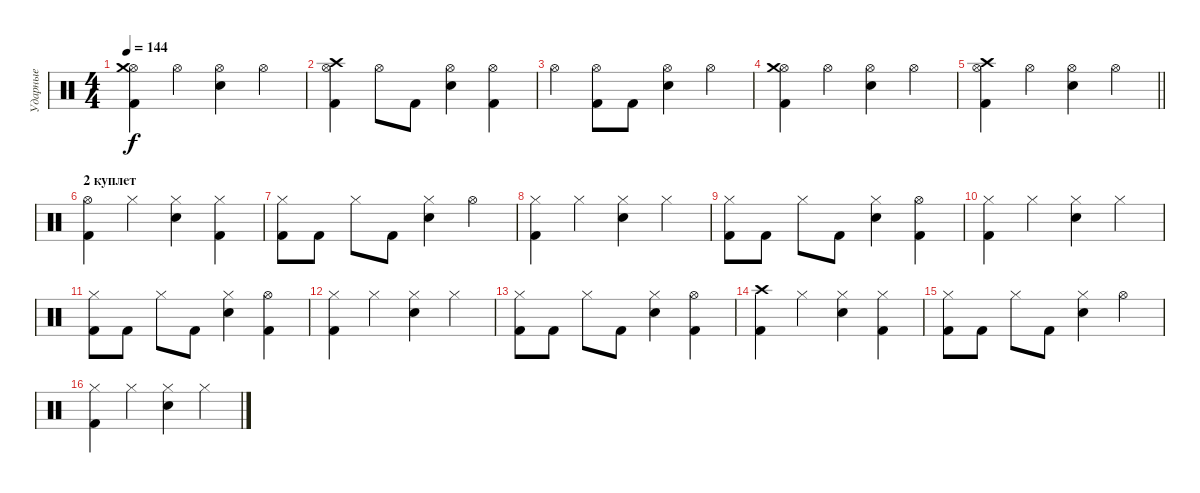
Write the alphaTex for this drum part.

\track ("Ударные" "Ударные") {instrument percussion}
\staff {score}
\articulation defaults
\ts (4 4)
\tempo 144
\clef neutral
\ks c
("Kick (hit) 2" "Hi-Hat (open)" "Crash medium (hit)").4{dy f} "Hi-Hat (open)".4 ("Snare (hit) 2" "Hi-Hat (open)").4 "Hi-Hat (open)".4 |
("Kick (hit) 2" "Hi-Hat (open)" "Crash high (hit)").4 "Hi-Hat (open)".8 "Kick (hit) 2".8 ("Snare (hit) 2" "Hi-Hat (open)").4 ("Kick (hit) 2" "Hi-Hat (open)").4 |
"Hi-Hat (open)".4 ("Kick (hit) 2" "Hi-Hat (open)").8 "Kick (hit) 2".8 ("Snare (hit) 2" "Hi-Hat (open)").4 "Hi-Hat (open)".4 |
("Kick (hit) 2" "Hi-Hat (open)" "Crash medium (hit)").4 "Hi-Hat (open)".4 ("Snare (hit) 2" "Hi-Hat (open)").4 "Hi-Hat (open)".4 |
\barLineRight lightlight
("Kick (hit) 2" "Hi-Hat (open)" "Crash high (hit)").4 "Hi-Hat (open)".4 ("Snare (hit) 2" "Hi-Hat (open)").4 "Hi-Hat (open)".4 |
\section ("" "2 куплет")
("Kick (hit) 2" "Hi-Hat (open)").4 "Hi-Hat (closed)".4 ("Snare (hit) 2" "Hi-Hat (closed)").4 ("Kick (hit) 2" "Hi-Hat (closed)").4 |
("Kick (hit) 2" "Hi-Hat (closed)").8 "Kick (hit) 2".8 "Hi-Hat (closed)".8 "Kick (hit) 2".8 ("Snare (hit) 2" "Hi-Hat (closed)").4 "Hi-Hat (open)".4 |
("Kick (hit) 2" "Hi-Hat (closed)").4 "Hi-Hat (closed)".4 ("Snare (hit) 2" "Hi-Hat (closed)").4 "Hi-Hat (closed)".4 |
("Kick (hit) 2" "Hi-Hat (closed)").8 "Kick (hit) 2".8 "Hi-Hat (closed)".8 "Kick (hit) 2".8 ("Snare (hit) 2" "Hi-Hat (closed)").4 ("Kick (hit) 2" "Hi-Hat (open)").4 |
("Kick (hit) 2" "Hi-Hat (closed)").4 "Hi-Hat (closed)".4 ("Snare (hit) 2" "Hi-Hat (closed)").4 "Hi-Hat (closed)".4 |
("Kick (hit) 2" "Hi-Hat (closed)").8 "Kick (hit) 2".8 "Hi-Hat (closed)".8 "Kick (hit) 2".8 ("Snare (hit) 2" "Hi-Hat (closed)").4 ("Kick (hit) 2" "Hi-Hat (open)").4 |
("Kick (hit) 2" "Hi-Hat (closed)").4 "Hi-Hat (closed)".4 ("Snare (hit) 2" "Hi-Hat (closed)").4 "Hi-Hat (closed)".4 |
("Kick (hit) 2" "Hi-Hat (closed)").8 "Kick (hit) 2".8 "Hi-Hat (closed)".8 "Kick (hit) 2".8 ("Snare (hit) 2" "Hi-Hat (closed)").4 ("Kick (hit) 2" "Hi-Hat (open)").4 |
("Kick (hit) 2" "Crash high (hit)").4 "Hi-Hat (closed)".4 ("Snare (hit) 2" "Hi-Hat (closed)").4 ("Kick (hit) 2" "Hi-Hat (closed)").4 |
("Kick (hit) 2" "Hi-Hat (closed)").8 "Kick (hit) 2".8 "Hi-Hat (closed)".8 "Kick (hit) 2".8 ("Snare (hit) 2" "Hi-Hat (closed)").4 "Hi-Hat (open)".4 |
("Kick (hit) 2" "Hi-Hat (closed)").4 "Hi-Hat (closed)".4 ("Snare (hit) 2" "Hi-Hat (closed)").4 "Hi-Hat (closed)".4
